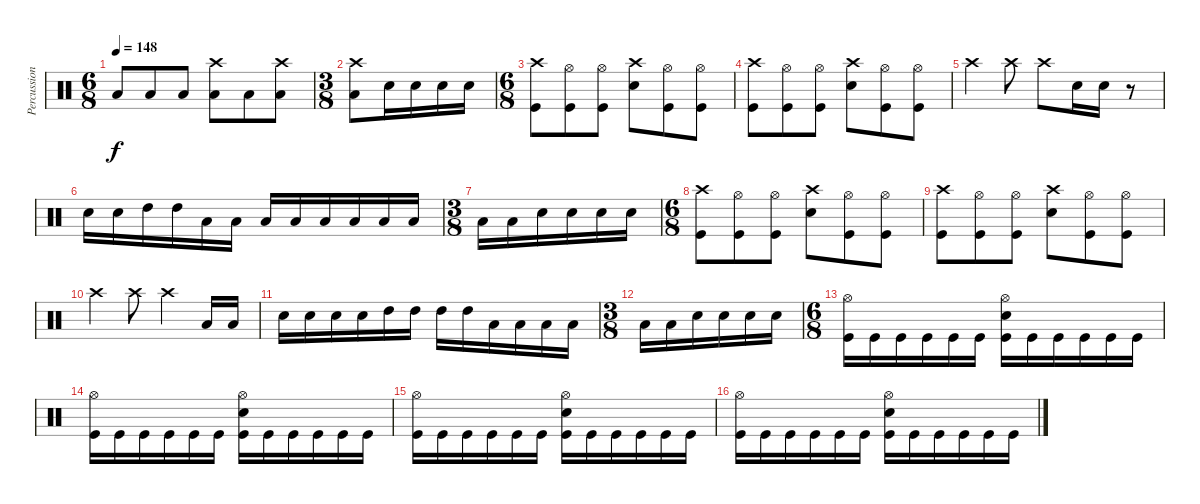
\track ("Percussion" "Percussion") {instrument percussion}
\staff {score}
\articulation defaults
\ts (6 8)
\tempo 148
\clef neutral
\ks c "Low Floor Tom (hit)".8{dy f} "Low Floor Tom (hit)".8 "Low Floor Tom (hit)".8
("Crash high (hit)" "Low Floor Tom (hit)").8 "Low Floor Tom (hit)".8 ("Crash high (hit)" "Low Floor Tom (hit)").8 |
\ts (3 8)
("Crash high (hit)" "Low Floor Tom (hit)").8 "Electric Snare (hit)".16 "Electric Snare (hit)".16 "Electric Snare (hit)".16 "Electric Snare (hit)".16 |
\ts (6 8)
("Crash high (hit)" "Kick (hit)").8 ("Hi-Hat (open)" "Kick (hit)").8 ("Hi-Hat (open)" "Kick (hit)").8 ("Crash high (hit)" "Electric Snare (hit)").8 ("Hi-Hat (open)" "Kick (hit)").8 ("Hi-Hat (open)" "Kick (hit)").8 |
("Crash high (hit)" "Kick (hit)").8 ("Hi-Hat (open)" "Kick (hit)").8 ("Hi-Hat (open)" "Kick (hit)").8 ("Crash high (hit)" "Electric Snare (hit)").8 ("Hi-Hat (open)" "Kick (hit)").8 ("Hi-Hat (open)" "Kick (hit)").8 |
"Crash high (hit)".4 "Crash high (hit)".8 "Crash high (hit)".8 "Electric Snare (hit)".16 "Electric Snare (hit)".16 r.8 |
"Electric Snare (hit)".16 "Electric Snare (hit)".16 "High Tom (hit)".16 "High Tom (hit)".16 "Low Floor Tom (hit)".16 "Low Floor Tom (hit)".16 "Low Floor Tom (hit)".16 "Low Floor Tom (hit)".16 "Low Floor Tom (hit)".16 "Low Floor Tom (hit)".16 "Low Floor Tom (hit)".16 "Low Floor Tom (hit)".16 |
\ts (3 8)
"Low Floor Tom (hit)".16 "Low Floor Tom (hit)".16 "Electric Snare (hit)".16 "Electric Snare (hit)".16 "Electric Snare (hit)".16 "Electric Snare (hit)".16 |
\ts (6 8)
("Crash high (hit)" "Kick (hit)").8 ("Hi-Hat (open)" "Kick (hit)").8 ("Hi-Hat (open)" "Kick (hit)").8 ("Crash high (hit)" "Electric Snare (hit)").8 ("Hi-Hat (open)" "Kick (hit)").8 ("Hi-Hat (open)" "Kick (hit)").8 |
("Crash high (hit)" "Kick (hit)").8 ("Hi-Hat (open)" "Kick (hit)").8 ("Hi-Hat (open)" "Kick (hit)").8 ("Crash high (hit)" "Electric Snare (hit)").8 ("Hi-Hat (open)" "Kick (hit)").8 ("Hi-Hat (open)" "Kick (hit)").8 |
"Crash high (hit)".4 "Crash high (hit)".8 "Crash high (hit)".4 "Low Floor Tom (hit)".16 "Low Floor Tom (hit)".16 |
"Electric Snare (hit)".16 "Electric Snare (hit)".16 "Electric Snare (hit)".16 "Electric Snare (hit)".16 "High Tom (hit)".16 "High Tom (hit)".16 "High Tom (hit)".16 "High Tom (hit)".16 "Low Floor Tom (hit)".16 "Low Floor Tom (hit)".16 "Low Floor Tom (hit)".16 "Low Floor Tom (hit)".16 |
\ts (3 8)
"Low Floor Tom (hit)".16 "Low Floor Tom (hit)".16 "Electric Snare (hit)".16 "Electric Snare (hit)".16 "Electric Snare (hit)".16 "Electric Snare (hit)".16 |
\ts (6 8)
("Hi-Hat (open)" "Kick (hit)").16 "Kick (hit)".16 "Kick (hit)".16 "Kick (hit)".16 "Kick (hit)".16 "Kick (hit)".16 ("Hi-Hat (open)" "Electric Snare (hit)" "Kick (hit)").16 "Kick (hit)".16 "Kick (hit)".16 "Kick (hit)".16 "Kick (hit)".16 "Kick (hit)".16 |
("Hi-Hat (open)" "Kick (hit)").16 "Kick (hit)".16 "Kick (hit)".16 "Kick (hit)".16 "Kick (hit)".16 "Kick (hit)".16 ("Hi-Hat (open)" "Electric Snare (hit)" "Kick (hit)").16 "Kick (hit)".16 "Kick (hit)".16 "Kick (hit)".16 "Kick (hit)".16 "Kick (hit)".16 |
("Hi-Hat (open)" "Kick (hit)").16 "Kick (hit)".16 "Kick (hit)".16 "Kick (hit)".16 "Kick (hit)".16 "Kick (hit)".16 ("Hi-Hat (open)" "Electric Snare (hit)" "Kick (hit)").16 "Kick (hit)".16 "Kick (hit)".16 "Kick (hit)".16 "Kick (hit)".16 "Kick (hit)".16 |
("Hi-Hat (open)" "Kick (hit)").16 "Kick (hit)".16 "Kick (hit)".16 "Kick (hit)".16 "Kick (hit)".16 "Kick (hit)".16 ("Hi-Hat (open)" "Electric Snare (hit)" "Kick (hit)").16 "Kick (hit)".16 "Kick (hit)".16 "Kick (hit)".16 "Kick (hit)".16 "Kick (hit)".16
